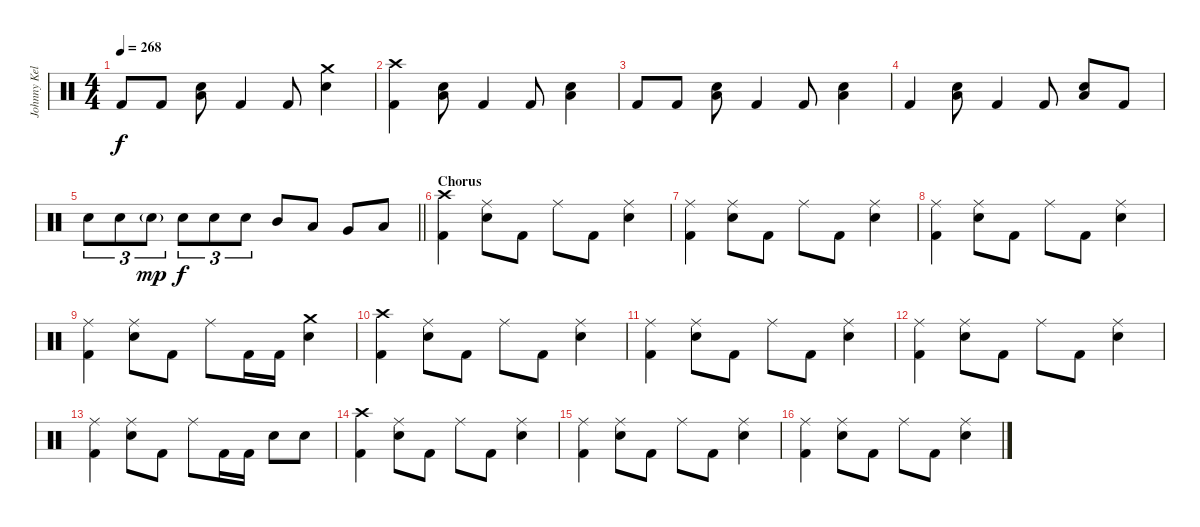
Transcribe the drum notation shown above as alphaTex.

\track ("Johnny Kelly" "Johnny Kel") {instrument percussion}
\staff {score}
\articulation defaults
\ts (4 4)
\tempo 268
\clef neutral
\ks c "Kick (hit) 2".8{dy f} "Kick (hit) 2".8
("Electric Snare (hit)" "Low Floor Tom (hit)").8 "Kick (hit) 2".4 "Kick (hit) 2".8 ("Crash medium (hit)" "Electric Snare (hit)").4 |
("Crash high (hit)" "Kick (hit) 2").4 ("Electric Snare (hit)" "Low Floor Tom (hit)").8 "Kick (hit) 2".4 "Kick (hit) 2".8 ("Electric Snare (hit)" "Low Floor Tom (hit)").4 |
"Kick (hit) 2".8 "Kick (hit) 2".8 ("Electric Snare (hit)" "Low Floor Tom (hit)").8 "Kick (hit) 2".4 "Kick (hit) 2".8 ("Electric Snare (hit)" "Low Floor Tom (hit)").4 |
"Kick (hit) 2".4 ("Electric Snare (hit)" "Low Floor Tom (hit)").8 "Kick (hit) 2".4 "Kick (hit) 2".8 ("Electric Snare (hit)" "Low Floor Tom (hit)").8 "Kick (hit) 2".8 |
\barLineRight lightlight "Electric Snare (hit)".8{tu (3 2)} "Electric Snare (hit)".8{tu (3 2)} "Electric Snare (hit)"{g}.8{tu (3 2) dy mp} "Electric Snare (hit)".8{tu (3 2) dy f} "Electric Snare (hit)".8{tu (3 2)} "Electric Snare (hit)".8{tu (3 2)} "Mid Tom (hit)".8 "Low Tom (hit)".8 "Very Low Tom (hit)".8 "Low Floor Tom (hit)".8
|
\section ("" "Chorus")
("Crash high (hit)" "Kick (hit) 2").4 ("Ride (middle)" "Electric Snare (hit)").8 "Kick (hit) 2".8 "Ride (middle)".8 "Kick (hit) 2".8 ("Ride (middle)" "Electric Snare (hit)").4 |
("Ride (middle)" "Kick (hit) 2").4 ("Ride (middle)" "Electric Snare (hit)").8 "Kick (hit) 2".8 "Ride (middle)".8 "Kick (hit) 2".8 ("Ride (middle)" "Electric Snare (hit)").4 |
("Ride (middle)" "Kick (hit) 2").4 ("Ride (middle)" "Electric Snare (hit)").8 "Kick (hit) 2".8 "Ride (middle)".8 "Kick (hit) 2".8 ("Ride (middle)" "Electric Snare (hit)").4 |
("Ride (middle)" "Kick (hit) 2").4 ("Ride (middle)" "Electric Snare (hit)").8 "Kick (hit) 2".8 "Ride (middle)".8 "Kick (hit) 2".16 "Kick (hit) 2".16 ("Crash medium (hit)" "Electric Snare (hit)").4 |
("Crash high (hit)" "Kick (hit) 2").4 ("Ride (middle)" "Electric Snare (hit)").8 "Kick (hit) 2".8 "Ride (middle)".8 "Kick (hit) 2".8 ("Ride (middle)" "Electric Snare (hit)").4 |
("Ride (middle)" "Kick (hit) 2").4 ("Ride (middle)" "Electric Snare (hit)").8 "Kick (hit) 2".8 "Ride (middle)".8 "Kick (hit) 2".8 ("Ride (middle)" "Electric Snare (hit)").4 |
("Ride (middle)" "Kick (hit) 2").4 ("Ride (middle)" "Electric Snare (hit)").8 "Kick (hit) 2".8 "Ride (middle)".8 "Kick (hit) 2".8 ("Ride (middle)" "Electric Snare (hit)").4 |
("Ride (middle)" "Kick (hit) 2").4 ("Ride (middle)" "Electric Snare (hit)").8 "Kick (hit) 2".8 "Ride (middle)".8 "Kick (hit) 2".16 "Kick (hit) 2".16 "Electric Snare (hit)".8 "Electric Snare (hit)".8 |
("Crash high (hit)" "Kick (hit) 2").4 ("Ride (middle)" "Electric Snare (hit)").8 "Kick (hit) 2".8 "Ride (middle)".8 "Kick (hit) 2".8 ("Ride (middle)" "Electric Snare (hit)").4 |
("Ride (middle)" "Kick (hit) 2").4 ("Ride (middle)" "Electric Snare (hit)").8 "Kick (hit) 2".8 "Ride (middle)".8 "Kick (hit) 2".8 ("Ride (middle)" "Electric Snare (hit)").4 |
("Ride (middle)" "Kick (hit) 2").4 ("Ride (middle)" "Electric Snare (hit)").8 "Kick (hit) 2".8 "Ride (middle)".8 "Kick (hit) 2".8 ("Ride (middle)" "Electric Snare (hit)").4
